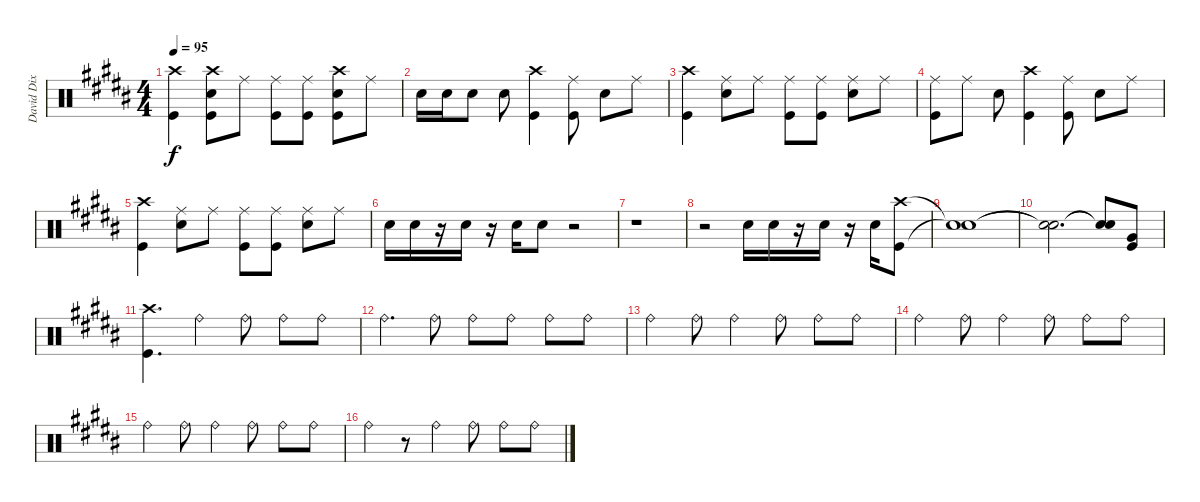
\track ("David Dix Drums" "David Dix ") {instrument percussion}
\staff {score}
\articulation defaults
\ts (4 4)
\tempo 95
\clef neutral
\ks g#minor
("Crash high (hit)" "Kick (hit)").4{dy f} ("Crash high (hit)" "Snare (hit) 2" "Kick (hit)").8 "Ride (middle)".8 ("Ride (middle)" "Kick (hit)").8 ("Ride (middle)" "Kick (hit)").8 ("Crash high (hit)" "Snare (hit) 2" "Kick (hit)").8 "Ride (middle)".8 |
"Snare (hit) 2".16 "Snare (hit) 2".16 "Snare (hit) 2".8 "Snare (hit) 2".8 ("Crash high (hit)" "Kick (hit)").4 ("Ride (middle)" "Kick (hit)").8 "Snare (hit) 2".8 "Ride (middle)".8 |
("Crash high (hit)" "Kick (hit)").4 ("Ride (middle)" "Snare (hit) 2").8 "Ride (middle)".8 ("Ride (middle)" "Kick (hit)").8 ("Ride (middle)" "Kick (hit)").8 ("Ride (middle)" "Snare (hit) 2").8 "Ride (middle)".8 |
("Ride (middle)" "Kick (hit)").8 "Ride (middle)".8 "Snare (hit) 2".8 ("Crash high (hit)" "Kick (hit)").4 ("Ride (middle)" "Kick (hit)").8 "Snare (hit) 2".8 "Ride (middle)".8 |
("Crash high (hit)" "Kick (hit)").4 ("Ride (middle)" "Snare (hit) 2").8 "Ride (middle)".8 ("Ride (middle)" "Kick (hit)").8 ("Ride (middle)" "Kick (hit)").8 ("Ride (middle)" "Snare (hit) 2").8 "Ride (middle)".8 |
"Snare (hit) 2".16 "Snare (hit) 2".16 r.16 "Snare (hit) 2".16 r.16 "Snare (hit) 2".16 "Snare (hit) 2".8 r.2 |
r.1 |
r.2 "Snare (hit) 2".16 "Snare (hit) 2".16 r.16 "Snare (hit) 2".16 r.16 "Snare (hit) 2".16 ("Crash high (hit)" "Kick (hit)").8 |
("Snare (hit)"{t} "Snare (hit)"{t}).1 |
("Snare (hit)"{t} "Snare (hit)"{t}).2{d} ("Snare (hit)"{t} "Snare (hit)"{t}).8 ("Very Low Tom (hit)" "Kick (hit)").8 |
("Crash high (hit)" "Kick (hit)").4{d} "Ride (bell)".4{volume 10} "Ride (bell)".8 "Ride (bell)".8 "Ride (bell)".8 |
"Ride (bell)".4{d} "Ride (bell)".8 "Ride (bell)".8 "Ride (bell)".8 "Ride (bell)".8 "Ride (bell)".8 |
"Ride (bell)".4 "Ride (bell)".8 "Ride (bell)".4 "Ride (bell)".8 "Ride (bell)".8 "Ride (bell)".8 |
"Ride (bell)".4 "Ride (bell)".8 "Ride (bell)".4 "Ride (bell)".8 "Ride (bell)".8 "Ride (bell)".8 |
"Ride (bell)".4 "Ride (bell)".8 "Ride (bell)".4 "Ride (bell)".8 "Ride (bell)".8 "Ride (bell)".8 |
"Ride (bell)".4 r.8 "Ride (bell)".4 "Ride (bell)".8 "Ride (bell)".8 "Ride (bell)".8
